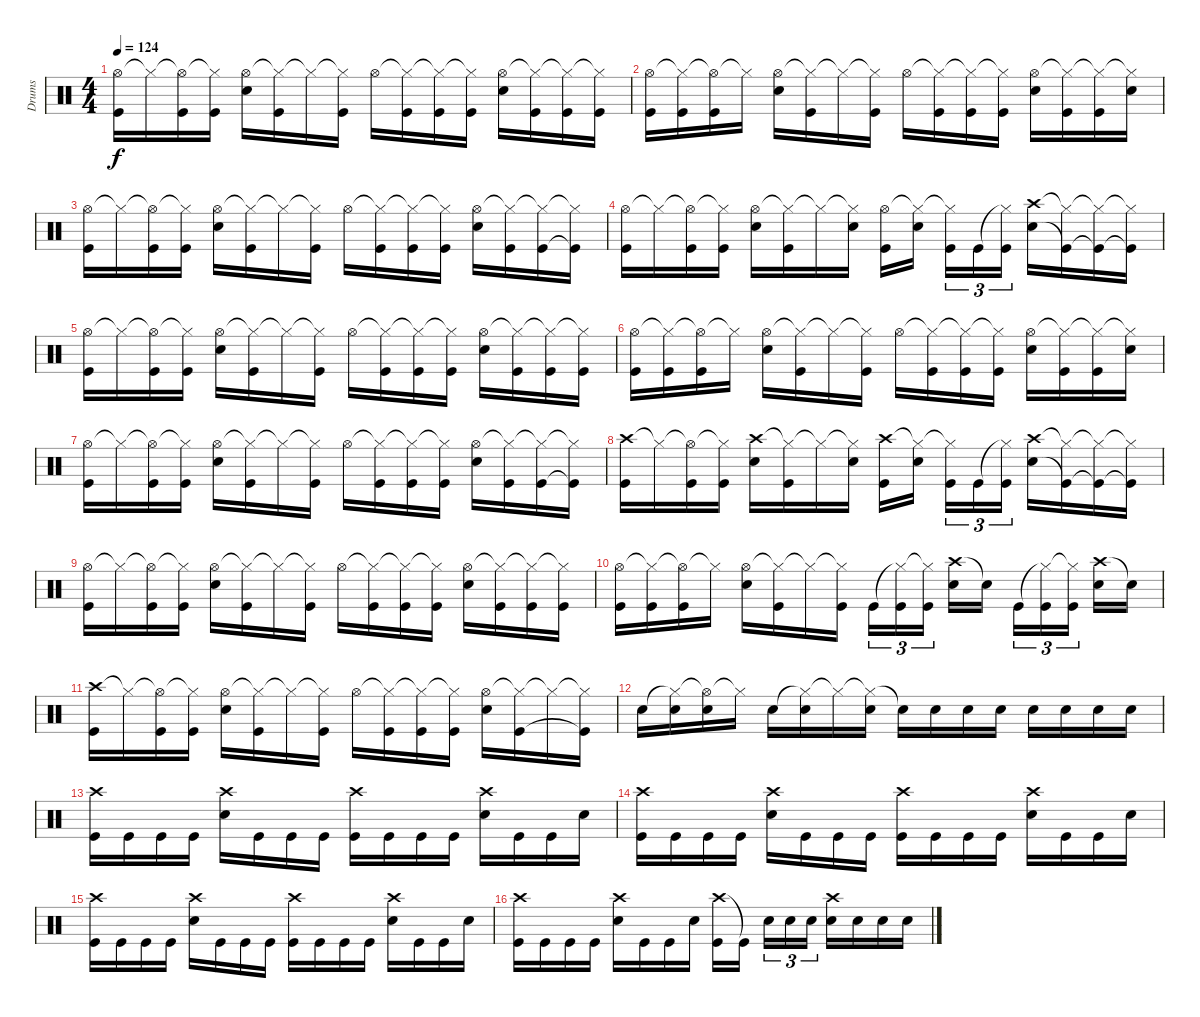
\track ("Drums" "Drums") {instrument percussion}
\staff {score}
\articulation defaults
\ts (4 4)
\tempo 124
\clef neutral
\ks c
("Hi-Hat (open)" "Kick (hit)").16{dy f} "Hi-Hat (closed)"{t}.16 ("Hi-Hat (open)"{t} "Kick (hit)").16 ("Hi-Hat (closed)"{t} "Kick (hit)").16 ("Hi-Hat (open)" "Electric Snare (hit)").16 ("Hi-Hat (closed)"{t} "Kick (hit)").16 "Hi-Hat (closed)"{t}.16 ("Hi-Hat (closed)"{t} "Kick (hit)").16 "Hi-Hat (open)".16 ("Hi-Hat (closed)"{t} "Kick (hit)").16 ("Hi-Hat (closed)"{t} "Kick (hit)").16 ("Hi-Hat (closed)"{t} "Kick (hit)").16 ("Hi-Hat (open)" "Electric Snare (hit)").16 ("Hi-Hat (closed)"{t} "Kick (hit)").16 ("Hi-Hat (closed)"{t} "Kick (hit)").16 ("Hi-Hat (closed)"{t} "Kick (hit)").16 |
("Hi-Hat (open)" "Kick (hit)").16 ("Hi-Hat (closed)"{t} "Kick (hit)").16 ("Hi-Hat (open)"{t} "Kick (hit)").16 "Hi-Hat (closed)"{t}.16 ("Hi-Hat (open)" "Electric Snare (hit)").16 ("Hi-Hat (closed)"{t} "Kick (hit)").16 "Hi-Hat (closed)"{t}.16 ("Hi-Hat (closed)"{t} "Kick (hit)").16 "Hi-Hat (open)".16 ("Hi-Hat (closed)"{t} "Kick (hit)").16 ("Hi-Hat (closed)"{t} "Kick (hit)").16 ("Hi-Hat (closed)"{t} "Kick (hit)").16 ("Hi-Hat (open)" "Electric Snare (hit)").16 ("Hi-Hat (closed)"{t} "Kick (hit)").16 ("Hi-Hat (closed)"{t} "Kick (hit)").16 ("Hi-Hat (closed)"{t} "Electric Snare (hit)").16 |
("Hi-Hat (open)" "Kick (hit)").16 "Hi-Hat (closed)"{t}.16 ("Hi-Hat (open)"{t} "Kick (hit)").16 ("Hi-Hat (closed)"{t} "Kick (hit)").16 ("Hi-Hat (open)" "Electric Snare (hit)").16 ("Hi-Hat (closed)"{t} "Kick (hit)").16 "Hi-Hat (closed)"{t}.16 ("Hi-Hat (closed)"{t} "Kick (hit)").16 "Hi-Hat (open)".16 ("Hi-Hat (closed)"{t} "Kick (hit)").16 ("Hi-Hat (closed)"{t} "Kick (hit)").16 ("Hi-Hat (closed)"{t} "Kick (hit)").16 ("Hi-Hat (open)" "Electric Snare (hit)").16 ("Hi-Hat (closed)"{t} "Kick (hit)").16 ("Hi-Hat (closed)"{t} "Kick (hit)").16 ("Hi-Hat (closed)"{t} "Kick (hit)"{t}).16 |
("Hi-Hat (open)" "Kick (hit)").16 "Hi-Hat (closed)"{t}.16 ("Hi-Hat (open)"{t} "Kick (hit)").16 ("Hi-Hat (closed)"{t} "Kick (hit)").16 ("Hi-Hat (open)" "Electric Snare (hit)").16 ("Hi-Hat (closed)"{t} "Kick (hit)").16 "Hi-Hat (closed)"{t}.16 ("Hi-Hat (closed)"{t} "Electric Snare (hit)").16 ("Hi-Hat (open)" "Kick (hit)").16 ("Hi-Hat (closed)"{t} "Electric Snare (hit)").16 ("Hi-Hat (closed)"{t} "Kick (hit)").16{tu (3 2)} "Kick (hit)".16{tu (3 2)} ("Hi-Hat (closed)"{t} "Kick (hit)").16{tu (3 2)} ("Crash high (hit)" "Electric Snare (hit)").16 ("Hi-Hat (closed)"{t} "Kick (hit)"{t}).16 ("Hi-Hat (closed)"{t} "Kick (hit)"{t}).16 ("Hi-Hat (closed)"{t} "Kick (hit)"{t}).16 |
("Hi-Hat (open)" "Kick (hit)").16 "Hi-Hat (closed)"{t}.16 ("Hi-Hat (open)"{t} "Kick (hit)").16 ("Hi-Hat (closed)"{t} "Kick (hit)").16 ("Hi-Hat (open)" "Electric Snare (hit)").16 ("Hi-Hat (closed)"{t} "Kick (hit)").16 "Hi-Hat (closed)"{t}.16 ("Hi-Hat (closed)"{t} "Kick (hit)").16 "Hi-Hat (open)".16 ("Hi-Hat (closed)"{t} "Kick (hit)").16 ("Hi-Hat (closed)"{t} "Kick (hit)").16 ("Hi-Hat (closed)"{t} "Kick (hit)").16 ("Hi-Hat (open)" "Electric Snare (hit)").16 ("Hi-Hat (closed)"{t} "Kick (hit)").16 ("Hi-Hat (closed)"{t} "Kick (hit)").16 ("Hi-Hat (closed)"{t} "Kick (hit)").16 |
("Hi-Hat (open)" "Kick (hit)").16 ("Hi-Hat (closed)"{t} "Kick (hit)").16 ("Hi-Hat (open)"{t} "Kick (hit)").16 "Hi-Hat (closed)"{t}.16 ("Hi-Hat (open)" "Electric Snare (hit)").16 ("Hi-Hat (closed)"{t} "Kick (hit)").16 "Hi-Hat (closed)"{t}.16 ("Hi-Hat (closed)"{t} "Kick (hit)").16 "Hi-Hat (open)".16 ("Hi-Hat (closed)"{t} "Kick (hit)").16 ("Hi-Hat (closed)"{t} "Kick (hit)").16 ("Hi-Hat (closed)"{t} "Kick (hit)").16 ("Hi-Hat (open)" "Electric Snare (hit)").16 ("Hi-Hat (closed)"{t} "Kick (hit)").16 ("Hi-Hat (closed)"{t} "Kick (hit)").16 ("Hi-Hat (closed)"{t} "Electric Snare (hit)").16 |
("Hi-Hat (open)" "Kick (hit)").16 "Hi-Hat (closed)"{t}.16 ("Hi-Hat (open)"{t} "Kick (hit)").16 ("Hi-Hat (closed)"{t} "Kick (hit)").16 ("Hi-Hat (open)" "Electric Snare (hit)").16 ("Hi-Hat (closed)"{t} "Kick (hit)").16 "Hi-Hat (closed)"{t}.16 ("Hi-Hat (closed)"{t} "Kick (hit)").16 "Hi-Hat (open)".16 ("Hi-Hat (closed)"{t} "Kick (hit)").16 ("Hi-Hat (closed)"{t} "Kick (hit)").16 ("Hi-Hat (closed)"{t} "Kick (hit)").16 ("Hi-Hat (open)" "Electric Snare (hit)").16 ("Hi-Hat (closed)"{t} "Kick (hit)").16 ("Hi-Hat (closed)"{t} "Kick (hit)").16 ("Hi-Hat (closed)"{t} "Kick (hit)"{t}).16 |
("Crash high (hit)" "Kick (hit)").16 "Hi-Hat (closed)"{t}.16 ("Hi-Hat (open)"{t} "Kick (hit)").16 ("Hi-Hat (closed)"{t} "Kick (hit)").16 ("Crash high (hit)" "Electric Snare (hit)").16 ("Hi-Hat (closed)"{t} "Kick (hit)").16 "Hi-Hat (closed)"{t}.16 ("Hi-Hat (closed)"{t} "Electric Snare (hit)").16 ("Crash high (hit)" "Kick (hit)").16 ("Hi-Hat (closed)"{t} "Electric Snare (hit)").16 ("Hi-Hat (closed)"{t} "Kick (hit)").16{tu (3 2)} "Kick (hit)".16{tu (3 2)} ("Hi-Hat (closed)"{t} "Kick (hit)").16{tu (3 2)} ("Crash high (hit)" "Electric Snare (hit)").16 ("Hi-Hat (closed)"{t} "Kick (hit)"{t}).16 ("Hi-Hat (closed)"{t} "Kick (hit)"{t}).16 ("Hi-Hat (closed)"{t} "Kick (hit)"{t}).16 |
("Hi-Hat (open)" "Kick (hit)").16 "Hi-Hat (closed)"{t}.16 ("Hi-Hat (open)"{t} "Kick (hit)").16 ("Hi-Hat (closed)"{t} "Kick (hit)").16 ("Hi-Hat (open)" "Electric Snare (hit)").16 ("Hi-Hat (closed)"{t} "Kick (hit)").16 "Hi-Hat (closed)"{t}.16 ("Hi-Hat (closed)"{t} "Kick (hit)").16 "Hi-Hat (open)".16 ("Hi-Hat (closed)"{t} "Kick (hit)").16 ("Hi-Hat (closed)"{t} "Kick (hit)").16 ("Hi-Hat (closed)"{t} "Kick (hit)").16 ("Hi-Hat (open)" "Electric Snare (hit)").16 ("Hi-Hat (closed)"{t} "Kick (hit)").16 ("Hi-Hat (closed)"{t} "Kick (hit)").16 ("Hi-Hat (closed)"{t} "Kick (hit)").16 |
("Hi-Hat (open)" "Kick (hit)").16 ("Hi-Hat (closed)"{t} "Kick (hit)").16 ("Hi-Hat (open)"{t} "Kick (hit)").16 "Hi-Hat (closed)"{t}.16 ("Hi-Hat (open)" "Electric Snare (hit)").16 ("Hi-Hat (closed)"{t} "Kick (hit)").16 "Hi-Hat (closed)"{t}.16 ("Hi-Hat (closed)"{t} "Kick (hit)").16 "Kick (hit)".16{tu (3 2)} ("Hi-Hat (closed)"{t} "Kick (hit)").16{tu (3 2)} ("Hi-Hat (closed)"{t} "Kick (hit)").16{tu (3 2)} ("Crash high (hit)" "Electric Snare (hit)").16 "Electric Snare (hit)"{t}.16 "Kick (hit)".16{tu (3 2)} ("Hi-Hat (closed)"{t} "Kick (hit)").16{tu (3 2)} ("Hi-Hat (closed)"{t} "Kick (hit)").16{tu (3 2)} ("Crash high (hit)" "Electric Snare (hit)").16 "Electric Snare (hit)"{t}.16 |
("Crash high (hit)" "Kick (hit)").16 "Hi-Hat (closed)"{t}.16 ("Hi-Hat (open)"{t} "Kick (hit)").16 ("Hi-Hat (closed)"{t} "Kick (hit)").16 ("Hi-Hat (open)" "Electric Snare (hit)").16 ("Hi-Hat (closed)"{t} "Kick (hit)").16 "Hi-Hat (closed)"{t}.16 ("Hi-Hat (closed)"{t} "Kick (hit)").16 "Hi-Hat (open)".16 ("Hi-Hat (closed)"{t} "Kick (hit)").16 ("Hi-Hat (closed)"{t} "Kick (hit)").16 ("Hi-Hat (closed)"{t} "Kick (hit)").16 ("Hi-Hat (open)" "Electric Snare (hit)").16 ("Hi-Hat (closed)"{t} "Kick (hit)").16 "Hi-Hat (closed)"{t}.16 ("Hi-Hat (closed)"{t} "Kick (hit)"{t}).16 |
"Electric Snare (hit)".16 ("Hi-Hat (closed)"{t} "Electric Snare (hit)").16 ("Hi-Hat (open)"{t} "Electric Snare (hit)").16 "Hi-Hat (closed)"{t}.16 "Electric Snare (hit)".16 ("Hi-Hat (closed)"{t} "Electric Snare (hit)").16 "Hi-Hat (closed)"{t}.16 ("Hi-Hat (closed)"{t} "Electric Snare (hit)").16 "Snare (hit)"{t}.16 "Electric Snare (hit)".16 "Electric Snare (hit)".16 "Electric Snare (hit)".16 "Electric Snare (hit)".16 "Electric Snare (hit)".16 "Electric Snare (hit)".16 "Electric Snare (hit)".16 |
("Crash high (hit)" "Kick (hit)").16 "Kick (hit)".16 "Kick (hit)".16 "Kick (hit)".16 ("Crash high (hit)" "Electric Snare (hit)").16 "Kick (hit)".16 "Kick (hit)".16 "Kick (hit)".16 ("Crash high (hit)" "Kick (hit)").16 "Kick (hit)".16 "Kick (hit)".16 "Kick (hit)".16 ("Crash high (hit)" "Electric Snare (hit)").16 "Kick (hit)".16 "Kick (hit)".16 "Electric Snare (hit)".16 |
("Crash high (hit)" "Kick (hit)").16 "Kick (hit)".16 "Kick (hit)".16 "Kick (hit)".16 ("Crash high (hit)" "Electric Snare (hit)").16 "Kick (hit)".16 "Kick (hit)".16 "Kick (hit)".16 ("Crash high (hit)" "Kick (hit)").16 "Kick (hit)".16 "Kick (hit)".16 "Kick (hit)".16 ("Crash high (hit)" "Electric Snare (hit)").16 "Kick (hit)".16 "Kick (hit)".16 "Electric Snare (hit)".16 |
("Crash high (hit)" "Kick (hit)").16 "Kick (hit)".16 "Kick (hit)".16 "Kick (hit)".16 ("Crash high (hit)" "Electric Snare (hit)").16 "Kick (hit)".16 "Kick (hit)".16 "Kick (hit)".16 ("Crash high (hit)" "Kick (hit)").16 "Kick (hit)".16 "Kick (hit)".16 "Kick (hit)".16 ("Crash high (hit)" "Electric Snare (hit)").16 "Kick (hit)".16 "Kick (hit)".16 "Electric Snare (hit)".16 |
("Crash high (hit)" "Kick (hit)").16 "Kick (hit)".16 "Kick (hit)".16 "Kick (hit)".16 ("Crash high (hit)" "Electric Snare (hit)").16 "Kick (hit)".16 "Kick (hit)".16 "Electric Snare (hit)".16 ("Crash high (hit)" "Kick (hit)").16 "Kick (hit)"{t}.16 "Electric Snare (hit)".16{tu (3 2)} "Electric Snare (hit)".16{tu (3 2)} "Electric Snare (hit)".16{tu (3 2)} ("Crash high (hit)" "Electric Snare (hit)").16 "Electric Snare (hit)".16 "Electric Snare (hit)".16 "Electric Snare (hit)".16
